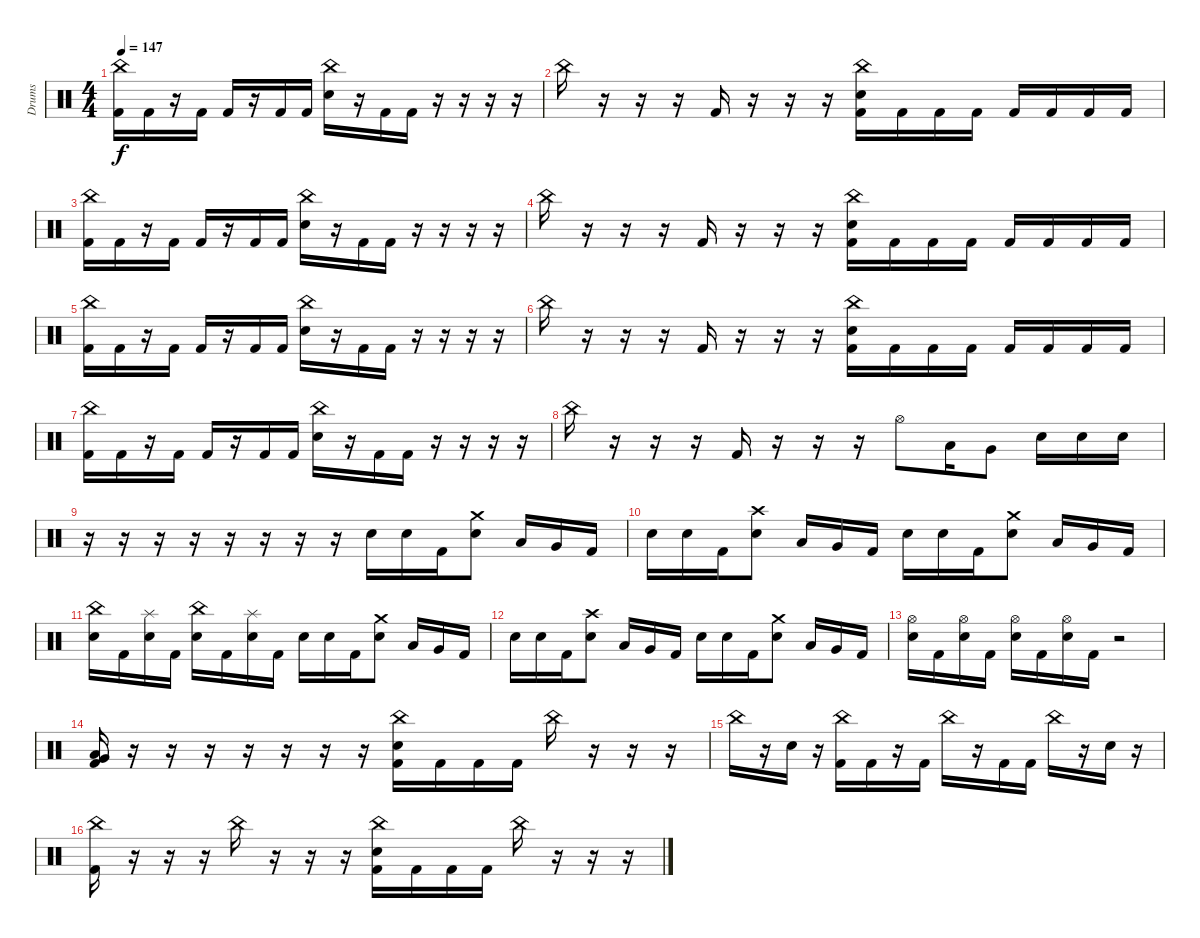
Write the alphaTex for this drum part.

\track ("Drums" "Drums") {instrument percussion}
\staff {score}
\articulation defaults
\ts (4 4)
\tempo 147
\clef neutral
\ks c
("China (hit)" "Kick (hit) 2").16{dy f} "Kick (hit) 2".16 r.16 "Kick (hit) 2".16 "Kick (hit) 2".16 r.16 "Kick (hit) 2".16 "Kick (hit) 2".16 ("China (hit)" "Electric Snare (hit)").16 r.16 "Kick (hit) 2".16 "Kick (hit) 2".16 r.16 r.16 r.16 r.16 |
"China (hit)".16 r.16 r.16 r.16 "Kick (hit) 2".16 r.16 r.16 r.16 ("China (hit)" "Electric Snare (hit)" "Kick (hit) 2").16 "Kick (hit) 2".16 "Kick (hit) 2".16 "Kick (hit) 2".16 "Kick (hit) 2".16 "Kick (hit) 2".16 "Kick (hit) 2".16 "Kick (hit) 2".16 |
("China (hit)" "Kick (hit) 2").16 "Kick (hit) 2".16 r.16 "Kick (hit) 2".16 "Kick (hit) 2".16 r.16 "Kick (hit) 2".16 "Kick (hit) 2".16 ("China (hit)" "Electric Snare (hit)").16 r.16 "Kick (hit) 2".16 "Kick (hit) 2".16 r.16 r.16 r.16 r.16 |
"China (hit)".16 r.16 r.16 r.16 "Kick (hit) 2".16 r.16 r.16 r.16 ("China (hit)" "Electric Snare (hit)" "Kick (hit) 2").16 "Kick (hit) 2".16 "Kick (hit) 2".16 "Kick (hit) 2".16 "Kick (hit) 2".16 "Kick (hit) 2".16 "Kick (hit) 2".16 "Kick (hit) 2".16 |
("China (hit)" "Kick (hit) 2").16 "Kick (hit) 2".16 r.16 "Kick (hit) 2".16 "Kick (hit) 2".16 r.16 "Kick (hit) 2".16 "Kick (hit) 2".16 ("China (hit)" "Electric Snare (hit)").16 r.16 "Kick (hit) 2".16 "Kick (hit) 2".16 r.16 r.16 r.16 r.16 |
"China (hit)".16 r.16 r.16 r.16 "Kick (hit) 2".16 r.16 r.16 r.16 ("China (hit)" "Electric Snare (hit)" "Kick (hit) 2").16 "Kick (hit) 2".16 "Kick (hit) 2".16 "Kick (hit) 2".16 "Kick (hit) 2".16 "Kick (hit) 2".16 "Kick (hit) 2".16 "Kick (hit) 2".16 |
("China (hit)" "Kick (hit) 2").16 "Kick (hit) 2".16 r.16 "Kick (hit) 2".16 "Kick (hit) 2".16 r.16 "Kick (hit) 2".16 "Kick (hit) 2".16 ("China (hit)" "Electric Snare (hit)").16 r.16 "Kick (hit) 2".16 "Kick (hit) 2".16 r.16 r.16 r.16 r.16 |
"China (hit)".16 r.16 r.16 r.16 "Kick (hit) 2".16 r.16 r.16 r.16 "Hi-Hat (open)".8 "Low Tom (hit)".16 "Very Low Tom (hit)".8 "Electric Snare (hit)".16 "Electric Snare (hit)".16 "Electric Snare (hit)".16 |
r.16 r.16 r.16 r.16 r.16 r.16 r.16 r.16 "Electric Snare (hit)".16 "Electric Snare (hit)".16 "Kick (hit) 2".16 ("Crash medium (hit)" "Electric Snare (hit)").8 "Low Tom (hit)".16 "Very Low Tom (hit)".16 "Kick (hit) 2".16 |
"Electric Snare (hit)".16 "Electric Snare (hit)".16 "Kick (hit) 2".16 ("Crash high (hit)" "Electric Snare (hit)").8 "Low Tom (hit)".16 "Very Low Tom (hit)".16 "Kick (hit) 2".16 "Electric Snare (hit)".16 "Electric Snare (hit)".16 "Kick (hit) 2".16 ("Crash medium (hit)" "Electric Snare (hit)").8 "Low Tom (hit)".16 "Very Low Tom (hit)".16 "Kick (hit) 2".16 |
("China (hit)" "Electric Snare (hit)").16 "Kick (hit) 2".16 ("Splash (hit)" "Electric Snare (hit)").16 "Kick (hit) 2".16 ("China (hit)" "Electric Snare (hit)").16 "Kick (hit) 2".16 ("Splash (hit)" "Electric Snare (hit)").16 "Kick (hit) 2".16 "Electric Snare (hit)".16 "Electric Snare (hit)".16 "Kick (hit) 2".16 ("Crash medium (hit)" "Electric Snare (hit)").8 "Low Tom (hit)".16 "Very Low Tom (hit)".16 "Kick (hit) 2".16 |
"Electric Snare (hit)".16 "Electric Snare (hit)".16 "Kick (hit) 2".16 ("Crash high (hit)" "Electric Snare (hit)").8 "Low Tom (hit)".16 "Very Low Tom (hit)".16 "Kick (hit) 2".16 "Electric Snare (hit)".16 "Electric Snare (hit)".16 "Kick (hit) 2".16 ("Crash medium (hit)" "Electric Snare (hit)").8 "Low Tom (hit)".16 "Very Low Tom (hit)".16 "Kick (hit) 2".16 |
("Hi-Hat (open)" "Electric Snare (hit)").16 "Kick (hit) 2".16 ("Hi-Hat (open)" "Electric Snare (hit)").16 "Kick (hit) 2".16 ("Hi-Hat (open)" "Electric Snare (hit)").16 "Kick (hit) 2".16 ("Hi-Hat (open)" "Electric Snare (hit)").16 "Kick (hit) 2".16 r.2 |
("Very Low Tom (hit)" "Low Floor Tom (hit)" "Kick (hit) 2").16 r.16 r.16 r.16 r.16 r.16 r.16 r.16 ("China (hit)" "Electric Snare (hit)" "Kick (hit) 2").16 "Kick (hit) 2".16 "Kick (hit) 2".16 "Kick (hit) 2".16 "China (hit)".16 r.16 r.16 r.16 |
"China (hit)".16 r.16 "Electric Snare (hit)".16 r.16 ("China (hit)" "Kick (hit) 2").16 "Kick (hit) 2".16 r.16 "Kick (hit) 2".16 "China (hit)".16 r.16 "Kick (hit) 2".16 "Kick (hit) 2".16 "China (hit)".16 r.16 "Electric Snare (hit)".16 r.16 |
("China (hit)" "Kick (hit) 2").16 r.16 r.16 r.16 "China (hit)".16 r.16 r.16 r.16 ("China (hit)" "Electric Snare (hit)" "Kick (hit) 2").16 "Kick (hit) 2".16 "Kick (hit) 2".16 "Kick (hit) 2".16 "China (hit)".16 r.16 r.16 r.16
